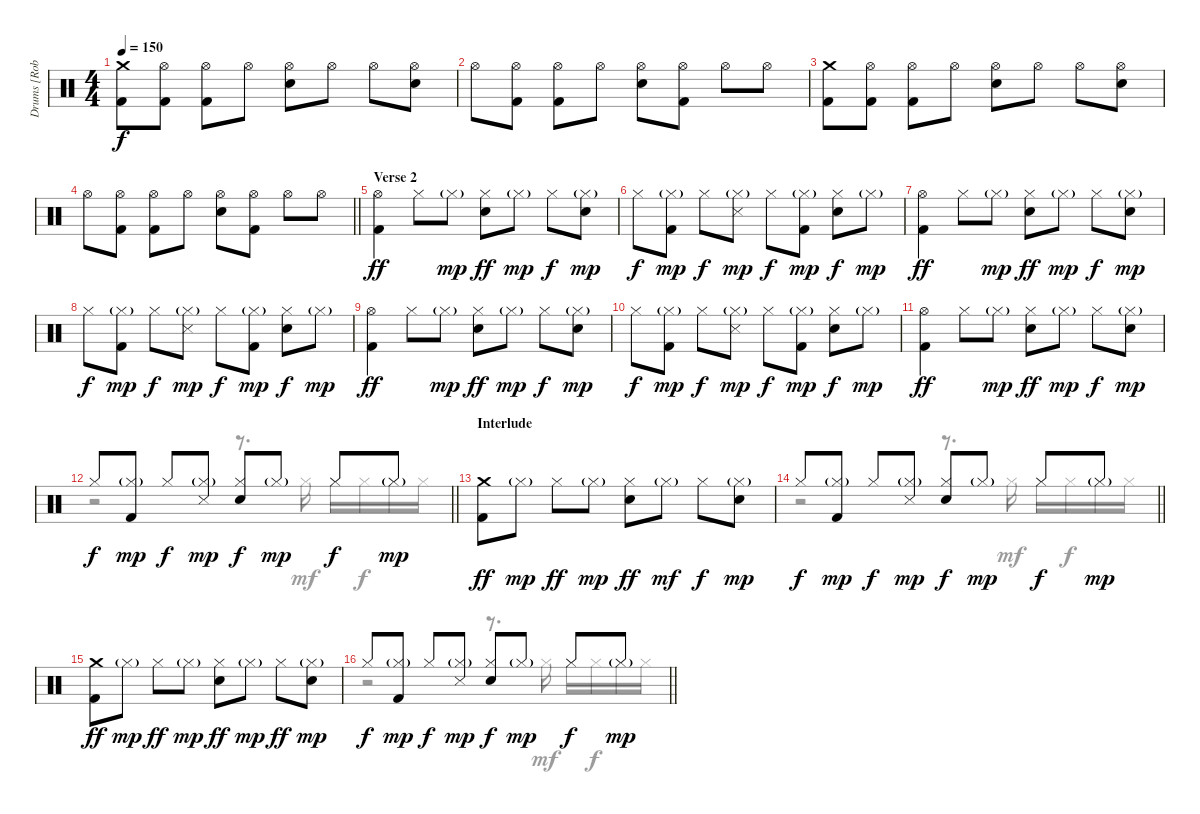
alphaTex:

\track ("Drums [Rob Bourdon]" "Drums [Rob") {instrument percussion}
\staff {score}
\articulation defaults
\voice
\ts (4 4)
\tempo 150
\clef neutral
\ks c
("Crash medium (hit)" "Kick (hit) 2").8{dy f} ("Hi-Hat (open)" "Kick (hit) 2").8 ("Hi-Hat (open)" "Kick (hit) 2").8 "Hi-Hat (open)".8 ("Hi-Hat (open)" "Electric Snare (hit)").8 "Hi-Hat (open)".8 "Hi-Hat (open)".8 ("Hi-Hat (open)" "Snare (hit) 2").8 |
"Hi-Hat (open)".8 ("Hi-Hat (open)" "Kick (hit) 2").8 ("Hi-Hat (open)" "Kick (hit) 2").8 "Hi-Hat (open)".8 ("Hi-Hat (open)" "Snare (hit) 2").8 ("Hi-Hat (open)" "Kick (hit) 2").8 "Hi-Hat (open)".8 "Hi-Hat (open)".8 |
("Crash medium (hit)" "Kick (hit) 2").8 ("Hi-Hat (open)" "Kick (hit) 2").8 ("Hi-Hat (open)" "Kick (hit) 2").8 "Hi-Hat (open)".8 ("Hi-Hat (open)" "Electric Snare (hit)").8 "Hi-Hat (open)".8 "Hi-Hat (open)".8 ("Hi-Hat (open)" "Snare (hit) 2").8 |
\barLineRight lightlight "Hi-Hat (open)".8
("Hi-Hat (open)" "Kick (hit) 2").8 ("Hi-Hat (open)" "Kick (hit) 2").8 "Hi-Hat (open)".8 ("Hi-Hat (open)" "Snare (hit) 2").8 ("Hi-Hat (open)" "Kick (hit) 2").8 "Hi-Hat (open)".8 "Hi-Hat (open)".8 |
\section ("" "Verse 2")
("Hi-Hat (open)" "Kick (hit) 2").4{dy ff} "Hi-Hat (closed)".8 "Hi-Hat (closed)"{g}.8{dy mp} ("Hi-Hat (closed)" "Electric Snare (hit)").8{dy ff} "Hi-Hat (closed)"{g}.8{dy mp} "Hi-Hat (closed)".8{dy f} ("Hi-Hat (closed)"{g} "Snare (hit) 2").8{dy mp} |
"Hi-Hat (closed)".8{dy f} ("Hi-Hat (closed)"{g} "Kick (hit) 2").8{dy mp} "Hi-Hat (closed)".8{dy f} ("Hi-Hat (closed)"{g} "Snare (side stick) 3").8{dy mp} "Hi-Hat (closed)".8{dy f} ("Hi-Hat (closed)"{g} "Kick (hit) 2").8{dy mp} ("Hi-Hat (closed)" "Snare (hit) 2").8{dy f} "Hi-Hat (closed)"{g}.8{dy mp} |
("Hi-Hat (open)" "Kick (hit) 2").4{dy ff} "Hi-Hat (closed)".8 "Hi-Hat (closed)"{g}.8{dy mp} ("Hi-Hat (closed)" "Electric Snare (hit)").8{dy ff} "Hi-Hat (closed)"{g}.8{dy mp} "Hi-Hat (closed)".8{dy f} ("Hi-Hat (closed)"{g} "Snare (hit) 2").8{dy mp} |
"Hi-Hat (closed)".8{dy f} ("Hi-Hat (closed)"{g} "Kick (hit) 2").8{dy mp} "Hi-Hat (closed)".8{dy f} ("Hi-Hat (closed)"{g} "Snare (side stick) 3").8{dy mp} "Hi-Hat (closed)".8{dy f} ("Hi-Hat (closed)"{g} "Kick (hit) 2").8{dy mp} ("Hi-Hat (closed)" "Snare (hit) 2").8{dy f} "Hi-Hat (closed)"{g}.8{dy mp} |
("Hi-Hat (open)" "Kick (hit) 2").4{dy ff} "Hi-Hat (closed)".8 "Hi-Hat (closed)"{g}.8{dy mp} ("Hi-Hat (closed)" "Electric Snare (hit)").8{dy ff} "Hi-Hat (closed)"{g}.8{dy mp} "Hi-Hat (closed)".8{dy f} ("Hi-Hat (closed)"{g} "Snare (hit) 2").8{dy mp} |
"Hi-Hat (closed)".8{dy f} ("Hi-Hat (closed)"{g} "Kick (hit) 2").8{dy mp} "Hi-Hat (closed)".8{dy f} ("Hi-Hat (closed)"{g} "Snare (side stick) 3").8{dy mp} "Hi-Hat (closed)".8{dy f} ("Hi-Hat (closed)"{g} "Kick (hit) 2").8{dy mp} ("Hi-Hat (closed)" "Snare (hit) 2").8{dy f} "Hi-Hat (closed)"{g}.8{dy mp} |
("Hi-Hat (open)" "Kick (hit) 2").4{dy ff} "Hi-Hat (closed)".8 "Hi-Hat (closed)"{g}.8{dy mp} ("Hi-Hat (closed)" "Electric Snare (hit)").8{dy ff} "Hi-Hat (closed)"{g}.8{dy mp} "Hi-Hat (closed)".8{dy f} ("Hi-Hat (closed)"{g} "Snare (hit) 2").8{dy mp} |
\barLineRight lightlight "Hi-Hat (closed)".8{dy f}
("Hi-Hat (closed)"{g} "Kick (hit) 2").8{dy mp} "Hi-Hat (closed)".8{dy f} ("Hi-Hat (closed)"{g} "Snare (side stick) 3").8{dy mp} ("Hi-Hat (closed)" "Snare (hit) 2").8{dy f} "Hi-Hat (closed)"{g}.8{dy mp} "Hi-Hat (closed)".8{dy f} "Hi-Hat (closed)"{g}.8{dy mp} |
\section ("" "Interlude")
("Crash medium (hit)" "Kick (hit) 2").8{dy ff} "Hi-Hat (closed)"{g}.8{dy mp} "Hi-Hat (closed)".8{dy ff} "Hi-Hat (closed)"{g}.8{dy mp} ("Hi-Hat (closed)" "Electric Snare (hit)").8{dy ff} "Hi-Hat (closed)"{g}.8{dy mf} "Hi-Hat (closed)".8{dy f} ("Hi-Hat (closed)"{g} "Snare (hit) 2").8{dy mp} |
\barLineRight lightlight "Hi-Hat (closed)".8{dy f}
("Hi-Hat (closed)"{g} "Kick (hit) 2").8{dy mp} "Hi-Hat (closed)".8{dy f} ("Hi-Hat (closed)"{g} "Snare (side stick) 3").8{dy mp} ("Hi-Hat (closed)" "Snare (hit) 2").8{dy f} "Hi-Hat (closed)"{g}.8{dy mp} "Hi-Hat (closed)".8{dy f} "Hi-Hat (closed)"{g}.8{dy mp} |
("Crash medium (hit)" "Kick (hit) 2").8{dy ff} "Hi-Hat (closed)"{g}.8{dy mp} "Hi-Hat (closed)".8{dy ff} "Hi-Hat (closed)"{g}.8{dy mp} ("Hi-Hat (closed)" "Electric Snare (hit)").8{dy ff} "Hi-Hat (closed)"{g}.8{dy mp} "Hi-Hat (closed)".8{dy ff} ("Hi-Hat (closed)"{g} "Snare (hit) 2").8{dy mp} |
\barLineRight lightlight "Hi-Hat (closed)".8{dy f}
("Hi-Hat (closed)"{g} "Kick (hit) 2").8{dy mp} "Hi-Hat (closed)".8{dy f} ("Hi-Hat (closed)"{g} "Snare (side stick) 3").8{dy mp} ("Hi-Hat (closed)" "Snare (hit) 2").8{dy f} "Hi-Hat (closed)"{g}.8{dy mp} "Hi-Hat (closed)".8{dy f} "Hi-Hat (closed)"{g}.8{dy mp}
\voice
\clef neutral
\ottava regular
\simile none
\ks c
|
|
|
\barLineRight lightlight
|
|
|
|
|
|
|
|
\barLineRight lightlight
r.2 r.8{d} "Hi-Hat (closed)".16{dy mf} "Hi-Hat (closed)".16 "Hi-Hat (closed)".16{dy f} "Hi-Hat (closed)".16 "Hi-Hat (closed)".16 |
|
\barLineRight lightlight
r.2 r.8{d} "Hi-Hat (closed)".16{dy mf} "Hi-Hat (closed)".16 "Hi-Hat (closed)".16{dy f} "Hi-Hat (closed)".16 "Hi-Hat (closed)".16 |
|
\barLineRight lightlight
r.2 r.8{d} "Hi-Hat (closed)".16{dy mf} "Hi-Hat (closed)".16 "Hi-Hat (closed)".16{dy f} "Hi-Hat (closed)".16 "Hi-Hat (closed)".16
